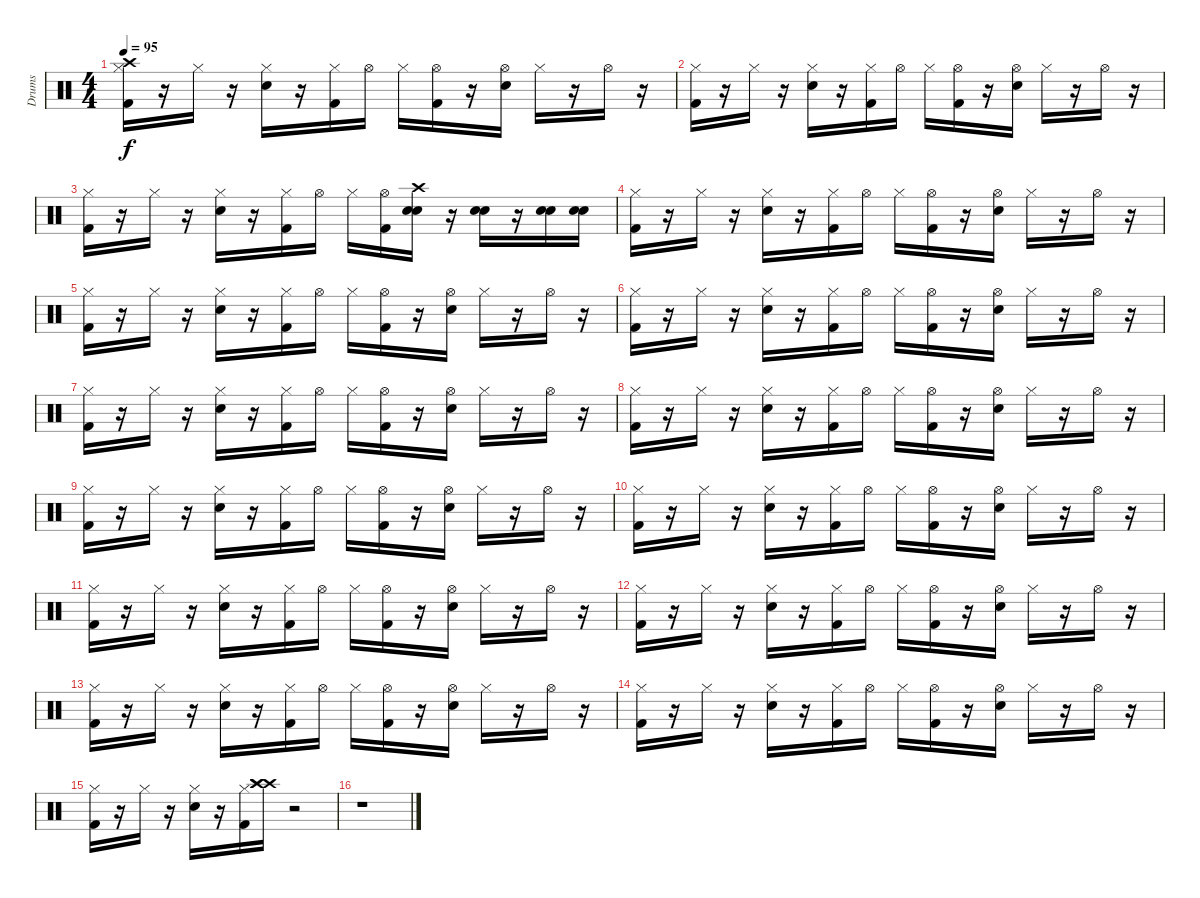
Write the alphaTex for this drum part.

\track ("Drums" "Drums") {instrument percussion}
\staff {score}
\articulation defaults
\ts (4 4)
\tempo 95
\clef neutral
\ks c
("Crash high (hit)" "Hi-Hat (closed)" "Kick (hit) 2").16{dy f} r.16 "Hi-Hat (closed)".16 r.16 ("Hi-Hat (closed)" "Snare (hit) 2").16 r.16 ("Hi-Hat (closed)" "Kick (hit) 2").16 "Hi-Hat (open)".16 "Hi-Hat (closed)".16 ("Hi-Hat (open)" "Kick (hit) 2").16 r.16 ("Hi-Hat (open)" "Snare (hit) 2").16 "Hi-Hat (closed)".16 r.16 "Hi-Hat (open)".16 r.16 |
("Hi-Hat (closed)" "Kick (hit) 2").16 r.16 "Hi-Hat (closed)".16 r.16 ("Hi-Hat (closed)" "Snare (hit) 2").16 r.16 ("Hi-Hat (closed)" "Kick (hit) 2").16 "Hi-Hat (open)".16 "Hi-Hat (closed)".16 ("Hi-Hat (open)" "Kick (hit) 2").16 r.16 ("Hi-Hat (open)" "Snare (hit) 2").16 "Hi-Hat (closed)".16 r.16 "Hi-Hat (open)".16 r.16 |
("Hi-Hat (closed)" "Kick (hit) 2").16 r.16 "Hi-Hat (closed)".16 r.16 ("Hi-Hat (closed)" "Snare (hit) 2").16 r.16 ("Hi-Hat (closed)" "Kick (hit) 2").16 "Hi-Hat (open)".16 "Hi-Hat (closed)".16 ("Hi-Hat (open)" "Kick (hit) 2").16 ("Crash high (hit)" "Snare (hit) 2" "Snare (hit) 2").16 r.16 ("Snare (hit) 2" "Snare (hit) 2").16 r.16 ("Snare (hit) 2" "Snare (hit) 2").16 ("Snare (hit) 2" "Snare (hit) 2").16 |
("Hi-Hat (closed)" "Kick (hit) 2").16 r.16 "Hi-Hat (closed)".16 r.16 ("Hi-Hat (closed)" "Snare (hit) 2").16 r.16 ("Hi-Hat (closed)" "Kick (hit) 2").16 "Hi-Hat (open)".16 "Hi-Hat (closed)".16 ("Hi-Hat (open)" "Kick (hit) 2").16 r.16 ("Hi-Hat (open)" "Snare (hit) 2").16 "Hi-Hat (closed)".16 r.16 "Hi-Hat (open)".16 r.16 |
("Hi-Hat (closed)" "Kick (hit) 2").16 r.16 "Hi-Hat (closed)".16 r.16 ("Hi-Hat (closed)" "Snare (hit) 2").16 r.16 ("Hi-Hat (closed)" "Kick (hit) 2").16 "Hi-Hat (open)".16 "Hi-Hat (closed)".16 ("Hi-Hat (open)" "Kick (hit) 2").16 r.16 ("Hi-Hat (open)" "Snare (hit) 2").16 "Hi-Hat (closed)".16 r.16 "Hi-Hat (open)".16 r.16 |
("Hi-Hat (closed)" "Kick (hit) 2").16 r.16 "Hi-Hat (closed)".16 r.16 ("Hi-Hat (closed)" "Snare (hit) 2").16 r.16 ("Hi-Hat (closed)" "Kick (hit) 2").16 "Hi-Hat (open)".16 "Hi-Hat (closed)".16 ("Hi-Hat (open)" "Kick (hit) 2").16 r.16 ("Hi-Hat (open)" "Snare (hit) 2").16 "Hi-Hat (closed)".16 r.16 "Hi-Hat (open)".16 r.16 |
("Hi-Hat (closed)" "Kick (hit) 2").16 r.16 "Hi-Hat (closed)".16 r.16 ("Hi-Hat (closed)" "Snare (hit) 2").16 r.16 ("Hi-Hat (closed)" "Kick (hit) 2").16 "Hi-Hat (open)".16 "Hi-Hat (closed)".16 ("Hi-Hat (open)" "Kick (hit) 2").16 r.16 ("Hi-Hat (open)" "Snare (hit) 2").16 "Hi-Hat (closed)".16 r.16 "Hi-Hat (open)".16 r.16 |
("Hi-Hat (closed)" "Kick (hit) 2").16 r.16 "Hi-Hat (closed)".16 r.16 ("Hi-Hat (closed)" "Snare (hit) 2").16 r.16 ("Hi-Hat (closed)" "Kick (hit) 2").16 "Hi-Hat (open)".16 "Hi-Hat (closed)".16 ("Hi-Hat (open)" "Kick (hit) 2").16 r.16 ("Hi-Hat (open)" "Snare (hit) 2").16 "Hi-Hat (closed)".16 r.16 "Hi-Hat (open)".16 r.16 |
("Hi-Hat (closed)" "Kick (hit) 2").16 r.16 "Hi-Hat (closed)".16 r.16 ("Hi-Hat (closed)" "Snare (hit) 2").16 r.16 ("Hi-Hat (closed)" "Kick (hit) 2").16 "Hi-Hat (open)".16 "Hi-Hat (closed)".16 ("Hi-Hat (open)" "Kick (hit) 2").16 r.16 ("Hi-Hat (open)" "Snare (hit) 2").16 "Hi-Hat (closed)".16 r.16 "Hi-Hat (open)".16 r.16 |
("Hi-Hat (closed)" "Kick (hit) 2").16 r.16 "Hi-Hat (closed)".16 r.16 ("Hi-Hat (closed)" "Snare (hit) 2").16 r.16 ("Hi-Hat (closed)" "Kick (hit) 2").16 "Hi-Hat (open)".16 "Hi-Hat (closed)".16 ("Hi-Hat (open)" "Kick (hit) 2").16 r.16 ("Hi-Hat (open)" "Snare (hit) 2").16 "Hi-Hat (closed)".16 r.16 "Hi-Hat (open)".16 r.16 |
("Hi-Hat (closed)" "Kick (hit) 2").16 r.16 "Hi-Hat (closed)".16 r.16 ("Hi-Hat (closed)" "Snare (hit) 2").16 r.16 ("Hi-Hat (closed)" "Kick (hit) 2").16 "Hi-Hat (open)".16 "Hi-Hat (closed)".16 ("Hi-Hat (open)" "Kick (hit) 2").16 r.16 ("Hi-Hat (open)" "Snare (hit) 2").16 "Hi-Hat (closed)".16 r.16 "Hi-Hat (open)".16 r.16 |
("Hi-Hat (closed)" "Kick (hit) 2").16 r.16 "Hi-Hat (closed)".16 r.16 ("Hi-Hat (closed)" "Snare (hit) 2").16 r.16 ("Hi-Hat (closed)" "Kick (hit) 2").16 "Hi-Hat (open)".16 "Hi-Hat (closed)".16 ("Hi-Hat (open)" "Kick (hit) 2").16 r.16 ("Hi-Hat (open)" "Snare (hit) 2").16 "Hi-Hat (closed)".16 r.16 "Hi-Hat (open)".16 r.16 |
("Hi-Hat (closed)" "Kick (hit) 2").16 r.16 "Hi-Hat (closed)".16 r.16 ("Hi-Hat (closed)" "Snare (hit) 2").16 r.16 ("Hi-Hat (closed)" "Kick (hit) 2").16 "Hi-Hat (open)".16 "Hi-Hat (closed)".16 ("Hi-Hat (open)" "Kick (hit) 2").16 r.16 ("Hi-Hat (open)" "Snare (hit) 2").16 "Hi-Hat (closed)".16 r.16 "Hi-Hat (open)".16 r.16 |
("Hi-Hat (closed)" "Kick (hit) 2").16 r.16 "Hi-Hat (closed)".16 r.16 ("Hi-Hat (closed)" "Snare (hit) 2").16 r.16 ("Hi-Hat (closed)" "Kick (hit) 2").16 "Hi-Hat (open)".16 "Hi-Hat (closed)".16 ("Hi-Hat (open)" "Kick (hit) 2").16 r.16 ("Hi-Hat (open)" "Snare (hit) 2").16 "Hi-Hat (closed)".16 r.16 "Hi-Hat (open)".16 r.16 |
("Hi-Hat (closed)" "Kick (hit) 2").16 r.16 "Hi-Hat (closed)".16 r.16 ("Hi-Hat (closed)" "Snare (hit) 2").16 r.16 ("Hi-Hat (closed)" "Kick (hit) 2").16 ("Crash high (hit)" "Crash high (hit)" "Crash high (hit)").16 r.2 |
r.1
